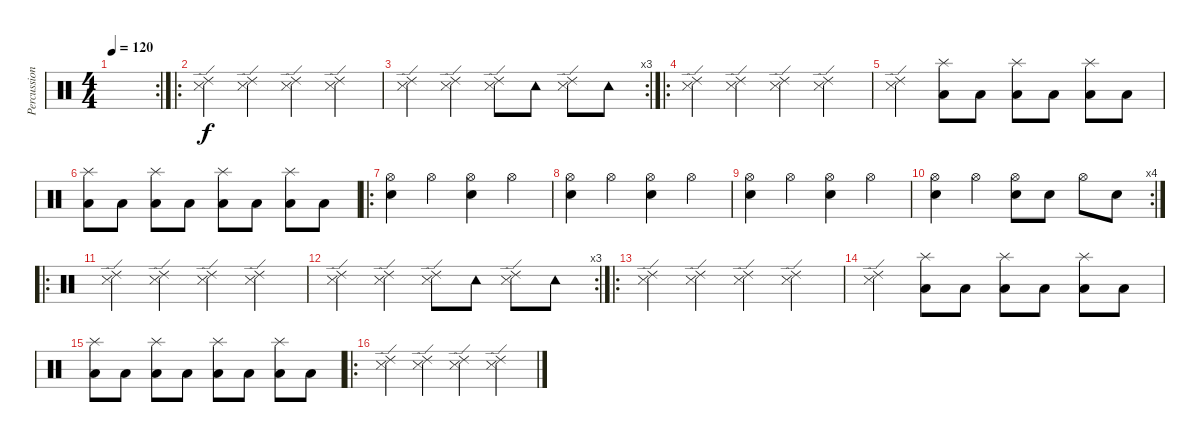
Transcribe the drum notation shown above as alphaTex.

\track ("Percussion" "Percussion") {instrument percussion}
\staff {score}
\articulation defaults
\rc 2
\ts (4 4)
\tempo 120
\clef neutral
\ks c
|
\ro
("Ride (edge) 2" "Snare (side stick) 3").4 ("Ride (edge) 2" "Snare (side stick) 3").4 ("Ride (edge) 2" "Snare (side stick) 3").4 ("Ride (edge) 2" "Snare (side stick) 3").4 |
\rc 3
("Ride (edge) 2" "Snare (side stick) 3").4 ("Ride (edge) 2" "Snare (side stick) 3").4 ("Ride (edge) 2" "Snare (side stick) 3").8 "Tambourine (hit)".8 ("Ride (edge) 2" "Snare (side stick) 3").8 "Tambourine (hit)".8 |
\ro
("Ride (edge) 2" "Snare (side stick) 3").4 ("Ride (edge) 2" "Snare (side stick) 3").4 ("Ride (edge) 2" "Snare (side stick) 3").4 ("Ride (edge) 2" "Snare (side stick) 3").4 |
("Ride (edge) 2" "Snare (side stick) 3").4 ("Splash (hit)" "Low Floor Tom (hit)").8{volume 5} "Low Floor Tom (hit)".8{volume 6} ("Splash (hit)" "Low Floor Tom (hit)").8{volume 7} "Low Floor Tom (hit)".8{volume 7} ("Splash (hit)" "Low Floor Tom (hit)").8{volume 8} "Low Floor Tom (hit)".8{volume 8} |
("Splash (hit)" "Low Floor Tom (hit)").8{volume 9} "Low Floor Tom (hit)".8{volume 10} ("Splash (hit)" "Low Floor Tom (hit)").8{volume 10} "Low Floor Tom (hit)".8{volume 11} ("Splash (hit)" "Low Floor Tom (hit)").8{volume 12} "Low Floor Tom (hit)".8{volume 13} ("Splash (hit)" "Low Floor Tom (hit)").8{volume 14} "Low Floor Tom (hit)".8{volume 14} |
\ro
("Hi-Hat (open)" "Snare (hit) 2").4{volume 12} "Hi-Hat (open)".4 ("Hi-Hat (open)" "Snare (hit) 2").4 "Hi-Hat (open)".4 |
("Hi-Hat (open)" "Snare (hit) 2").4{volume 12} "Hi-Hat (open)".4 ("Hi-Hat (open)" "Snare (hit) 2").4 "Hi-Hat (open)".4 |
("Hi-Hat (open)" "Snare (hit) 2").4{volume 12} "Hi-Hat (open)".4 ("Hi-Hat (open)" "Snare (hit) 2").4 "Hi-Hat (open)".4 |
\rc 4
("Hi-Hat (open)" "Snare (hit) 2").4{volume 12} "Hi-Hat (open)".4 ("Hi-Hat (open)" "Snare (hit) 2").8 "Snare (hit) 2".8 "Hi-Hat (open)".8 "Snare (hit) 2".8 |
\ro
("Ride (edge) 2" "Snare (side stick) 3").4 ("Ride (edge) 2" "Snare (side stick) 3").4 ("Ride (edge) 2" "Snare (side stick) 3").4 ("Ride (edge) 2" "Snare (side stick) 3").4 |
\rc 3
("Ride (edge) 2" "Snare (side stick) 3").4 ("Ride (edge) 2" "Snare (side stick) 3").4 ("Ride (edge) 2" "Snare (side stick) 3").8 "Tambourine (hit)".8 ("Ride (edge) 2" "Snare (side stick) 3").8 "Tambourine (hit)".8 |
\ro
("Ride (edge) 2" "Snare (side stick) 3").4 ("Ride (edge) 2" "Snare (side stick) 3").4 ("Ride (edge) 2" "Snare (side stick) 3").4 ("Ride (edge) 2" "Snare (side stick) 3").4 |
("Ride (edge) 2" "Snare (side stick) 3").4 ("Splash (hit)" "Low Floor Tom (hit)").8{volume 5} "Low Floor Tom (hit)".8{volume 6} ("Splash (hit)" "Low Floor Tom (hit)").8{volume 7} "Low Floor Tom (hit)".8{volume 7} ("Splash (hit)" "Low Floor Tom (hit)").8{volume 8} "Low Floor Tom (hit)".8{volume 8} |
("Splash (hit)" "Low Floor Tom (hit)").8{volume 9} "Low Floor Tom (hit)".8{volume 10} ("Splash (hit)" "Low Floor Tom (hit)").8{volume 10} "Low Floor Tom (hit)".8{volume 11} ("Splash (hit)" "Low Floor Tom (hit)").8{volume 12} "Low Floor Tom (hit)".8{volume 13} ("Splash (hit)" "Low Floor Tom (hit)").8{volume 14} "Low Floor Tom (hit)".8{volume 14} |
\ro
("Ride (edge) 2" "Snare (side stick) 3").4 ("Ride (edge) 2" "Snare (side stick) 3").4 ("Ride (edge) 2" "Snare (side stick) 3").4 ("Ride (edge) 2" "Snare (side stick) 3").4
